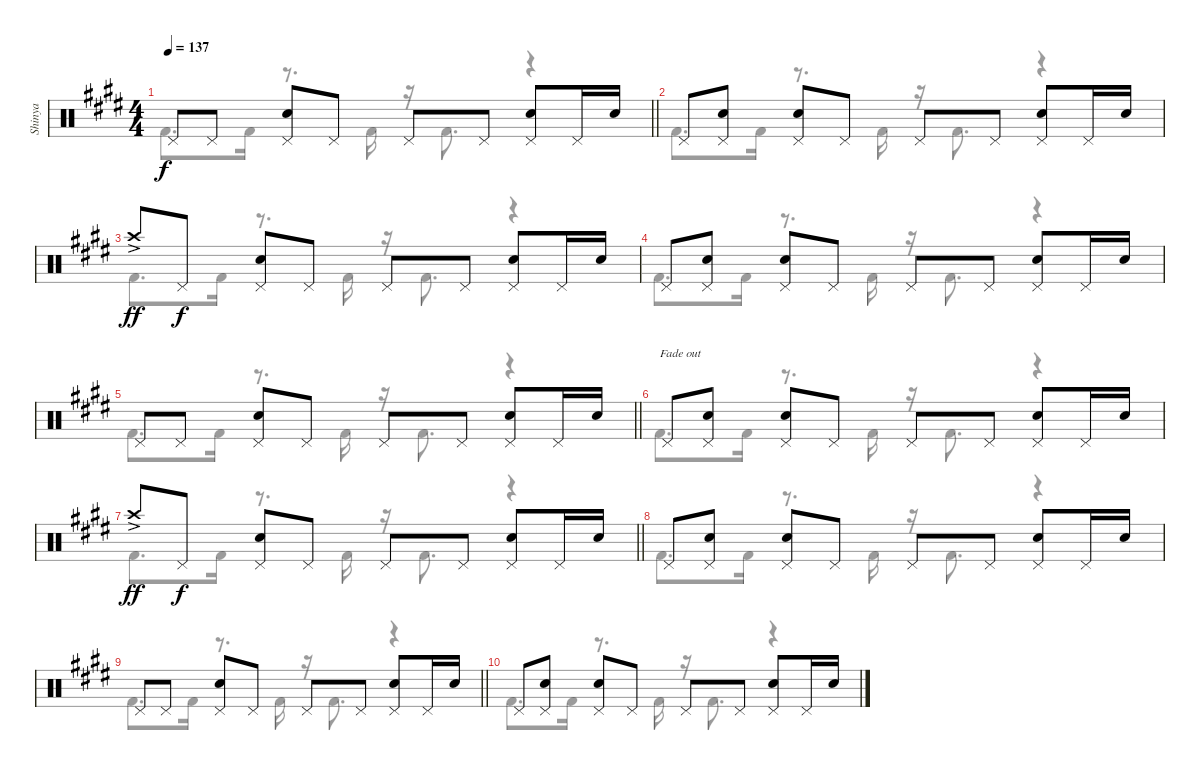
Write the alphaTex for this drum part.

\track ("Shinya" "Shinya") {instrument percussion}
\staff {score}
\articulation defaults
\voice
\ts (4 4)
\tempo 137
\clef neutral
\barLineRight lightlight
\ks c#minor "Pedal Hi-Hat (hit)".8{dy f} "Pedal Hi-Hat (hit)".8
("Pedal Hi-Hat (hit)" "Snare (hit) 2").8 "Pedal Hi-Hat (hit)".8 "Pedal Hi-Hat (hit)".8 "Pedal Hi-Hat (hit)".8 ("Pedal Hi-Hat (hit)" "Snare (hit) 2").8 "Pedal Hi-Hat (hit)".16 "Snare (hit) 2".16 |
"Pedal Hi-Hat (hit)".8 ("Pedal Hi-Hat (hit)" "Snare (hit) 2").8 ("Pedal Hi-Hat (hit)" "Snare (hit) 2").8 "Pedal Hi-Hat (hit)".8 "Pedal Hi-Hat (hit)".8 "Pedal Hi-Hat (hit)".8 ("Pedal Hi-Hat (hit)" "Snare (hit) 2").8 "Pedal Hi-Hat (hit)".16 "Snare (hit) 2".16 |
"Crash high (hit)"{ac}.8{dy ff} "Pedal Hi-Hat (hit)".8{dy f} ("Pedal Hi-Hat (hit)" "Snare (hit) 2").8 "Pedal Hi-Hat (hit)".8 "Pedal Hi-Hat (hit)".8 "Pedal Hi-Hat (hit)".8 ("Pedal Hi-Hat (hit)" "Snare (hit) 2").8 "Pedal Hi-Hat (hit)".16 "Snare (hit) 2".16 |
"Pedal Hi-Hat (hit)".8 ("Pedal Hi-Hat (hit)" "Snare (hit) 2").8 ("Pedal Hi-Hat (hit)" "Snare (hit) 2").8 "Pedal Hi-Hat (hit)".8 "Pedal Hi-Hat (hit)".8 "Pedal Hi-Hat (hit)".8 ("Pedal Hi-Hat (hit)" "Snare (hit) 2").8 "Pedal Hi-Hat (hit)".16 "Snare (hit) 2".16 |
\barLineRight lightlight "Pedal Hi-Hat (hit)".8 "Pedal Hi-Hat (hit)".8
("Pedal Hi-Hat (hit)" "Snare (hit) 2").8 "Pedal Hi-Hat (hit)".8 "Pedal Hi-Hat (hit)".8 "Pedal Hi-Hat (hit)".8 ("Pedal Hi-Hat (hit)" "Snare (hit) 2").8 "Pedal Hi-Hat (hit)".16 "Snare (hit) 2".16 |
"Pedal Hi-Hat (hit)".8{txt "Fade out" volume 0} ("Pedal Hi-Hat (hit)" "Snare (hit) 2").8 ("Pedal Hi-Hat (hit)" "Snare (hit) 2").8 "Pedal Hi-Hat (hit)".8 "Pedal Hi-Hat (hit)".8 "Pedal Hi-Hat (hit)".8 ("Pedal Hi-Hat (hit)" "Snare (hit) 2").8 "Pedal Hi-Hat (hit)".16 "Snare (hit) 2".16 |
\barLineRight lightlight "Crash high (hit)"{ac}.8{dy ff} "Pedal Hi-Hat (hit)".8{dy f}
("Pedal Hi-Hat (hit)" "Snare (hit) 2").8 "Pedal Hi-Hat (hit)".8 "Pedal Hi-Hat (hit)".8 "Pedal Hi-Hat (hit)".8 ("Pedal Hi-Hat (hit)" "Snare (hit) 2").8 "Pedal Hi-Hat (hit)".16 "Snare (hit) 2".16 |
"Pedal Hi-Hat (hit)".8 ("Pedal Hi-Hat (hit)" "Snare (hit) 2").8 ("Pedal Hi-Hat (hit)" "Snare (hit) 2").8 "Pedal Hi-Hat (hit)".8 "Pedal Hi-Hat (hit)".8 "Pedal Hi-Hat (hit)".8 ("Pedal Hi-Hat (hit)" "Snare (hit) 2").8 "Pedal Hi-Hat (hit)".16 "Snare (hit) 2".16 |
\barLineRight lightlight "Pedal Hi-Hat (hit)".8 "Pedal Hi-Hat (hit)".8
("Pedal Hi-Hat (hit)" "Snare (hit) 2").8 "Pedal Hi-Hat (hit)".8 "Pedal Hi-Hat (hit)".8 "Pedal Hi-Hat (hit)".8 ("Pedal Hi-Hat (hit)" "Snare (hit) 2").8 "Pedal Hi-Hat (hit)".16 "Snare (hit) 2".16 |
"Pedal Hi-Hat (hit)".8 ("Pedal Hi-Hat (hit)" "Snare (hit) 2").8 ("Pedal Hi-Hat (hit)" "Snare (hit) 2").8 "Pedal Hi-Hat (hit)".8 "Pedal Hi-Hat (hit)".8 "Pedal Hi-Hat (hit)".8 ("Pedal Hi-Hat (hit)" "Snare (hit) 2").8 "Pedal Hi-Hat (hit)".16 "Snare (hit) 2".16
\voice
\clef neutral
\ottava regular
\simile none
\barLineRight lightlight
\ks c#minor "Kick (hit) 2".8{d dy f} "Kick (hit) 2".16
r.8{d} "Kick (hit) 2".16 r.16 "Kick (hit) 2".8{d} r.4 |
"Kick (hit) 2".8{d} "Kick (hit) 2".16 r.8{d} "Kick (hit) 2".16 r.16 "Kick (hit) 2".8{d} r.4 |
"Kick (hit) 2".8{d} "Kick (hit) 2".16 r.8{d} "Kick (hit) 2".16 r.16 "Kick (hit) 2".8{d} r.4 |
"Kick (hit) 2".8{d} "Kick (hit) 2".16 r.8{d} "Kick (hit) 2".16 r.16 "Kick (hit) 2".8{d} r.4 |
\barLineRight lightlight "Kick (hit) 2".8{d} "Kick (hit) 2".16
r.8{d} "Kick (hit) 2".16 r.16 "Kick (hit) 2".8{d} r.4 |
"Kick (hit) 2".8{d} "Kick (hit) 2".16 r.8{d} "Kick (hit) 2".16 r.16 "Kick (hit) 2".8{d} r.4 |
\barLineRight lightlight "Kick (hit) 2".8{d} "Kick (hit) 2".16
r.8{d} "Kick (hit) 2".16 r.16 "Kick (hit) 2".8{d} r.4 |
"Kick (hit) 2".8{d} "Kick (hit) 2".16 r.8{d} "Kick (hit) 2".16 r.16 "Kick (hit) 2".8{d} r.4 |
\barLineRight lightlight "Kick (hit) 2".8{d} "Kick (hit) 2".16
r.8{d} "Kick (hit) 2".16 r.16 "Kick (hit) 2".8{d} r.4 |
"Kick (hit) 2".8{d} "Kick (hit) 2".16 r.8{d} "Kick (hit) 2".16 r.16 "Kick (hit) 2".8{d} r.4
